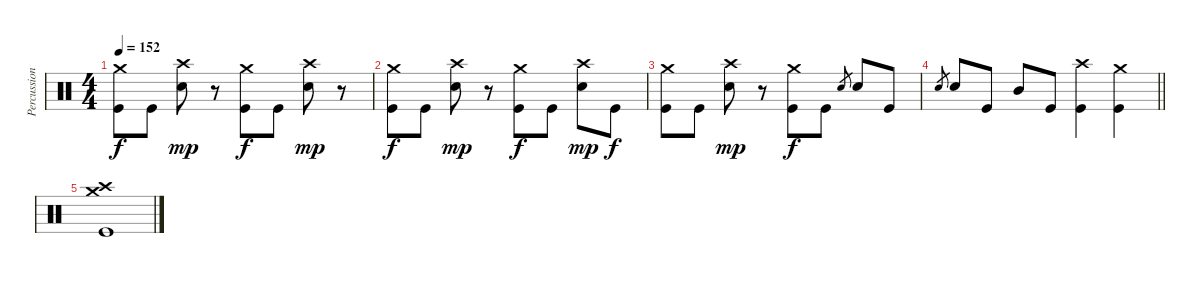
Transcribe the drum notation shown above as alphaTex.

\track ("Percussions" "Percussion") {instrument percussion}
\staff {score}
\articulation defaults
\ts (4 4)
\tempo 152
\clef neutral
\ks c
("Crash medium (hit)" "Kick (hit)").8{dy f} "Kick (hit)".8 ("Crash high (hit)" "Snare (hit) 2").8{dy mp} r.8 ("Crash medium (hit)" "Kick (hit)").8{dy f} "Kick (hit)".8 ("Crash high (hit)" "Snare (hit) 2").8{dy mp} r.8 |
("Crash medium (hit)" "Kick (hit)").8{dy f} "Kick (hit)".8 ("Crash high (hit)" "Snare (hit) 2").8{dy mp} r.8 ("Crash medium (hit)" "Kick (hit)").8{dy f} "Kick (hit)".8 ("Crash high (hit)" "Snare (hit) 2").8{dy mp} "Kick (hit)".8{dy f} |
("Crash medium (hit)" "Kick (hit)").8 "Kick (hit)".8 ("Crash high (hit)" "Snare (hit) 2").8{dy mp} r.8 ("Crash medium (hit)" "Kick (hit)").8{dy f} "Kick (hit)".8 "Snare (hit) 2".8{gr} "Snare (hit) 2".8 "Kick (hit)".8 |
\barLineRight lightlight "Snare (hit) 2".8{gr} "Snare (hit) 2".8 "Kick (hit)".8 "Mid Tom (hit)".8 "Kick (hit)".8
("Crash high (hit)" "Kick (hit)").4 ("Crash medium (hit)" "Kick (hit)").4 |
("Crash medium (hit)" "Crash high (hit)" "Kick (hit)").1
